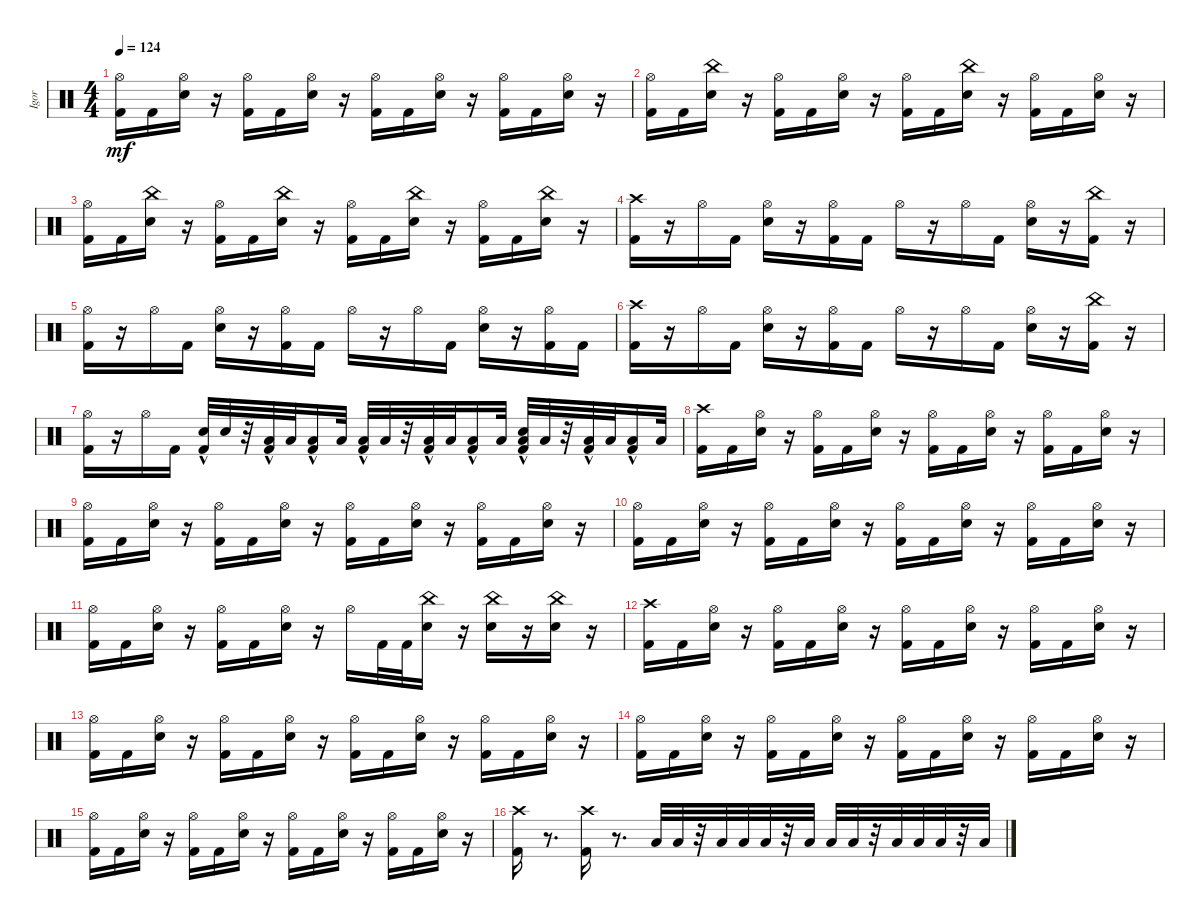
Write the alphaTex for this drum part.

\track ("Igor" "Igor") {instrument percussion}
\staff {score}
\articulation defaults
\ts (4 4)
\tempo 124
\clef neutral
\ks c
("Kick (hit) 2" "Hi-Hat (open)").16{dy mf} "Kick (hit) 2".16 ("Snare (hit) 2" "Hi-Hat (open)").16 r.16 ("Hi-Hat (open)" "Kick (hit) 2").16 "Kick (hit) 2".16 ("Snare (hit) 2" "Hi-Hat (open)").16 r.16 ("Kick (hit) 2" "Hi-Hat (open)").16 "Kick (hit) 2".16 ("Snare (hit) 2" "Hi-Hat (open)").16 r.16 ("Hi-Hat (open)" "Kick (hit) 2").16 "Kick (hit) 2".16 ("Snare (hit) 2" "Hi-Hat (open)").16 r.16 |
("Kick (hit) 2" "Hi-Hat (open)").16 "Kick (hit) 2".16 ("Snare (hit) 2" "China (hit)").16 r.16 ("Kick (hit) 2" "Hi-Hat (open)").16 "Kick (hit) 2".16 ("Snare (hit) 2" "Hi-Hat (open)").16 r.16 ("Kick (hit) 2" "Hi-Hat (open)").16 "Kick (hit) 2".16 ("Snare (hit) 2" "China (hit)").16 r.16 ("Kick (hit) 2" "Hi-Hat (open)").16 "Kick (hit) 2".16 ("Snare (hit) 2" "Hi-Hat (open)").16 r.16 |
("Kick (hit) 2" "Hi-Hat (open)").16 "Kick (hit) 2".16 ("Snare (hit) 2" "China (hit)").16 r.16 ("Kick (hit) 2" "Hi-Hat (open)").16 "Kick (hit) 2".16 ("Snare (hit) 2" "China (hit)").16 r.16 ("Kick (hit) 2" "Hi-Hat (open)").16 "Kick (hit) 2".16 ("Snare (hit) 2" "China (hit)").16 r.16 ("Kick (hit) 2" "Hi-Hat (open)").16 "Kick (hit) 2".16 ("Snare (hit) 2" "China (hit)").16 r.16 |
("Kick (hit) 2" "Crash high (hit)").16 r.16 "Hi-Hat (open)".16 "Kick (hit) 2".16 ("Hi-Hat (open)" "Snare (hit) 2").16 r.16 ("Hi-Hat (open)" "Kick (hit) 2").16 "Kick (hit) 2".16 "Hi-Hat (open)".16 r.16 "Hi-Hat (open)".16 "Kick (hit) 2".16 ("Snare (hit) 2" "Hi-Hat (open)").16 r.16 ("Kick (hit) 2" "China (hit)").16 r.16 |
("Kick (hit) 2" "Hi-Hat (open)").16 r.16 "Hi-Hat (open)".16 "Kick (hit) 2".16 ("Hi-Hat (open)" "Snare (hit) 2").16 r.16 ("Hi-Hat (open)" "Kick (hit) 2").16 "Kick (hit) 2".16 "Hi-Hat (open)".16 r.16 "Hi-Hat (open)".16 "Kick (hit) 2".16 ("Hi-Hat (open)" "Snare (hit) 2").16 r.16 ("Kick (hit) 2" "Hi-Hat (open)").16 "Kick (hit) 2".16 |
("Kick (hit) 2" "Crash high (hit)").16 r.16 "Hi-Hat (open)".16 "Kick (hit) 2".16 ("Hi-Hat (open)" "Snare (hit) 2").16 r.16 ("Hi-Hat (open)" "Kick (hit) 2").16 "Kick (hit) 2".16 "Hi-Hat (open)".16 r.16 "Hi-Hat (open)".16 "Kick (hit) 2".16 ("Hi-Hat (open)" "Snare (hit) 2").16 r.16 ("Kick (hit) 2" "China (hit)").16 r.16 |
("Kick (hit) 2" "Hi-Hat (open)").16 r.16 "Hi-Hat (open)".16 "Kick (hit) 2".16 ("Kick (hit) 2"{hac} "Snare (hit) 2").32 "Snare (hit) 2".32 r.32 ("Kick (hit) 2"{hac} "Low Tom (hit)").32 "Low Tom (hit)".32 ("Kick (hit) 2"{hac} "Low Tom (hit)").16 "Low Tom (hit)".32 ("Kick (hit) 2"{hac} "Low Tom (hit)").32 "Low Tom (hit)".32 r.32 ("Kick (hit) 2"{hac} "Low Tom (hit)").32 "Low Tom (hit)".32 ("Kick (hit) 2"{hac} "Low Floor Tom (hit)").16 "Low Floor Tom (hit)".32 ("Kick (hit) 2"{hac} "Snare (hit) 2" "Low Floor Tom (hit)").32 "Low Floor Tom (hit)".32 r.32 ("Kick (hit) 2"{hac} "Low Floor Tom (hit)").32 "Low Floor Tom (hit)".32 ("Kick (hit) 2"{hac} "Low Floor Tom (hit)").16 "Low Floor Tom (hit)".32 |
("Kick (hit) 2" "Crash high (hit)").16 "Kick (hit) 2".16 ("Snare (hit) 2" "Hi-Hat (open)").16 r.16 ("Hi-Hat (open)" "Kick (hit) 2").16 "Kick (hit) 2".16 ("Snare (hit) 2" "Hi-Hat (open)").16 r.16 ("Kick (hit) 2" "Hi-Hat (open)").16 "Kick (hit) 2".16 ("Snare (hit) 2" "Hi-Hat (open)").16 r.16 ("Hi-Hat (open)" "Kick (hit) 2").16 "Kick (hit) 2".16 ("Snare (hit) 2" "Hi-Hat (open)").16 r.16 |
("Kick (hit) 2" "Hi-Hat (open)").16 "Kick (hit) 2".16 ("Snare (hit) 2" "Hi-Hat (open)").16 r.16 ("Hi-Hat (open)" "Kick (hit) 2").16 "Kick (hit) 2".16 ("Snare (hit) 2" "Hi-Hat (open)").16 r.16 ("Kick (hit) 2" "Hi-Hat (open)").16 "Kick (hit) 2".16 ("Snare (hit) 2" "Hi-Hat (open)").16 r.16 ("Hi-Hat (open)" "Kick (hit) 2").16 "Kick (hit) 2".16 ("Snare (hit) 2" "Hi-Hat (open)").16 r.16 |
("Kick (hit) 2" "Hi-Hat (open)").16 "Kick (hit) 2".16 ("Snare (hit) 2" "Hi-Hat (open)").16 r.16 ("Hi-Hat (open)" "Kick (hit) 2").16 "Kick (hit) 2".16 ("Snare (hit) 2" "Hi-Hat (open)").16 r.16 ("Kick (hit) 2" "Hi-Hat (open)").16 "Kick (hit) 2".16 ("Snare (hit) 2" "Hi-Hat (open)").16 r.16 ("Hi-Hat (open)" "Kick (hit) 2").16 "Kick (hit) 2".16 ("Snare (hit) 2" "Hi-Hat (open)").16 r.16 |
("Kick (hit) 2" "Hi-Hat (open)").16 "Kick (hit) 2".16 ("Snare (hit) 2" "Hi-Hat (open)").16 r.16 ("Hi-Hat (open)" "Kick (hit) 2").16 "Kick (hit) 2".16 ("Snare (hit) 2" "Hi-Hat (open)").16 r.16 "Hi-Hat (open)".16 "Kick (hit) 2".32 "Kick (hit) 2".32 ("Snare (hit) 2" "China (hit)").16 r.16 ("Snare (hit) 2" "China (hit)").16 r.16 ("Snare (hit) 2" "China (hit)").16 r.16 |
("Kick (hit) 2" "Crash high (hit)").16 "Kick (hit) 2".16 ("Snare (hit) 2" "Hi-Hat (open)").16 r.16 ("Hi-Hat (open)" "Kick (hit) 2").16 "Kick (hit) 2".16 ("Snare (hit) 2" "Hi-Hat (open)").16 r.16 ("Kick (hit) 2" "Hi-Hat (open)").16 "Kick (hit) 2".16 ("Snare (hit) 2" "Hi-Hat (open)").16 r.16 ("Hi-Hat (open)" "Kick (hit) 2").16 "Kick (hit) 2".16 ("Snare (hit) 2" "Hi-Hat (open)").16 r.16 |
("Kick (hit) 2" "Hi-Hat (open)").16 "Kick (hit) 2".16 ("Snare (hit) 2" "Hi-Hat (open)").16 r.16 ("Hi-Hat (open)" "Kick (hit) 2").16 "Kick (hit) 2".16 ("Snare (hit) 2" "Hi-Hat (open)").16 r.16 ("Kick (hit) 2" "Hi-Hat (open)").16 "Kick (hit) 2".16 ("Snare (hit) 2" "Hi-Hat (open)").16 r.16 ("Hi-Hat (open)" "Kick (hit) 2").16 "Kick (hit) 2".16 ("Snare (hit) 2" "Hi-Hat (open)").16 r.16 |
("Kick (hit) 2" "Hi-Hat (open)").16 "Kick (hit) 2".16 ("Snare (hit) 2" "Hi-Hat (open)").16 r.16 ("Hi-Hat (open)" "Kick (hit) 2").16 "Kick (hit) 2".16 ("Snare (hit) 2" "Hi-Hat (open)").16 r.16 ("Kick (hit) 2" "Hi-Hat (open)").16 "Kick (hit) 2".16 ("Snare (hit) 2" "Hi-Hat (open)").16 r.16 ("Hi-Hat (open)" "Kick (hit) 2").16 "Kick (hit) 2".16 ("Snare (hit) 2" "Hi-Hat (open)").16 r.16 |
("Kick (hit) 2" "Hi-Hat (open)").16 "Kick (hit) 2".16 ("Snare (hit) 2" "Hi-Hat (open)").16 r.16 ("Hi-Hat (open)" "Kick (hit) 2").16 "Kick (hit) 2".16 ("Snare (hit) 2" "Hi-Hat (open)").16 r.16 ("Kick (hit) 2" "Hi-Hat (open)").16 "Kick (hit) 2".16 ("Snare (hit) 2" "Hi-Hat (open)").16 r.16 ("Hi-Hat (open)" "Kick (hit) 2").16 "Kick (hit) 2".16 ("Snare (hit) 2" "Hi-Hat (open)").16 r.16 |
("Crash high (hit)" "Kick (hit) 2").16 r.8{d} ("Crash high (hit)" "Kick (hit) 2").16 r.8{d} "Low Tom (hit)".32 "Low Tom (hit)".32 r.32 "Low Tom (hit)".32 "Low Tom (hit)".32 "Low Tom (hit)".32 r.32 "Low Tom (hit)".32 "Low Floor Tom (hit)".32 "Low Floor Tom (hit)".32 r.32 "Low Floor Tom (hit)".32 "Low Floor Tom (hit)".32 "Low Floor Tom (hit)".32 r.32 "Low Floor Tom (hit)".32
